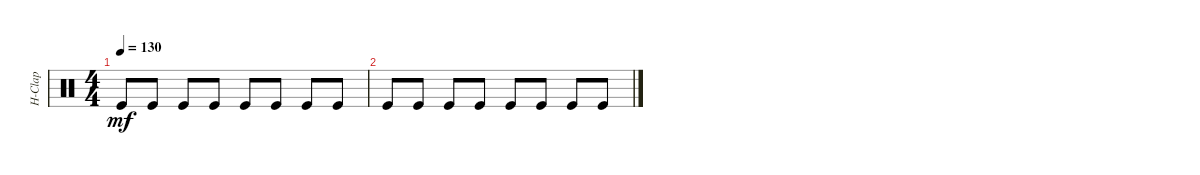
\defaultSystemsLayout 4
\track ("Hand Clap" "H-Clap") {instrument percussion}
\staff {score}
\articulation defaults
\ts (4 4)
\tempo 130
\clef neutral
\ks c "Kick (hit)".8{dy mf} "Kick (hit)".8 "Kick (hit)".8 "Kick (hit)".8 "Kick (hit)".8 "Kick (hit)".8 "Kick (hit)".8 "Kick (hit)".8
|
"Kick (hit)".8 "Kick (hit)".8 "Kick (hit)".8 "Kick (hit)".8 "Kick (hit)".8 "Kick (hit)".8 "Kick (hit)".8 "Kick (hit)".8
